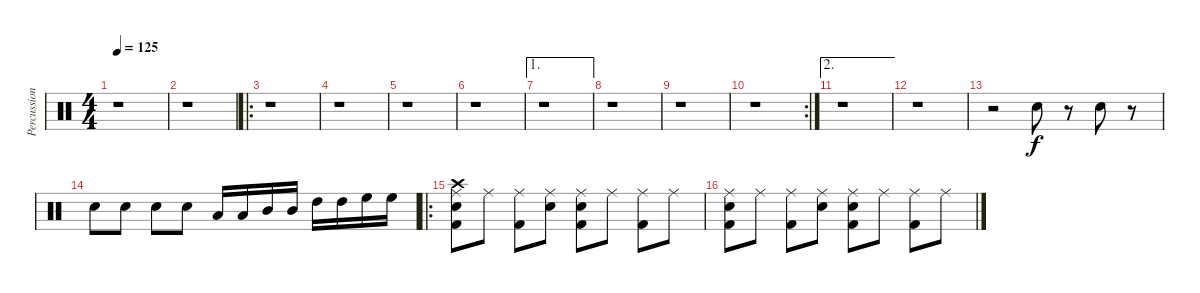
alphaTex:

\track ("Percussions" "Percussion") {instrument percussion}
\staff {score}
\articulation defaults
\ts (4 4)
\tempo 125
\clef neutral
\ks c
r.1{dy f} |
r.1 |
\ro
r.1 |
r.1 |
r.1 |
r.1 |
\ae 1
r.1 |
r.1 |
r.1 |
\rc 2
r.1 |
\ae 2
r.1 |
r.1 |
r.2 "Snare (hit) 2".8 r.8 "Snare (hit) 2".8 r.8 |
"Snare (hit) 2".8 "Snare (hit) 2".8 "Snare (hit) 2".8 "Snare (hit) 2".8 "Low Tom (hit)".16 "Low Tom (hit)".16 "Mid Tom (hit)".16 "Mid Tom (hit)".16 "High Tom (hit)".16 "High Tom (hit)".16 "High Floor Tom (hit)".16 "High Floor Tom (hit)".16 |
\ro
("Crash high (hit)" "Snare (hit) 2" "Kick (hit) 2" "Ride (middle)").8 "Ride (middle)".8 ("Kick (hit) 2" "Ride (middle)").8 ("Snare (hit) 2" "Ride (middle)").8 ("Snare (hit) 2" "Kick (hit) 2" "Ride (middle)").8 "Ride (middle)".8 ("Kick (hit) 2" "Ride (middle)").8 "Ride (middle)".8 |
("Snare (hit) 2" "Kick (hit) 2" "Ride (middle)").8 "Ride (middle)".8 ("Kick (hit) 2" "Ride (middle)").8 ("Snare (hit) 2" "Ride (middle)").8 ("Snare (hit) 2" "Kick (hit) 2" "Ride (middle)").8 "Ride (middle)".8 ("Kick (hit) 2" "Ride (middle)").8 "Ride (middle)".8
